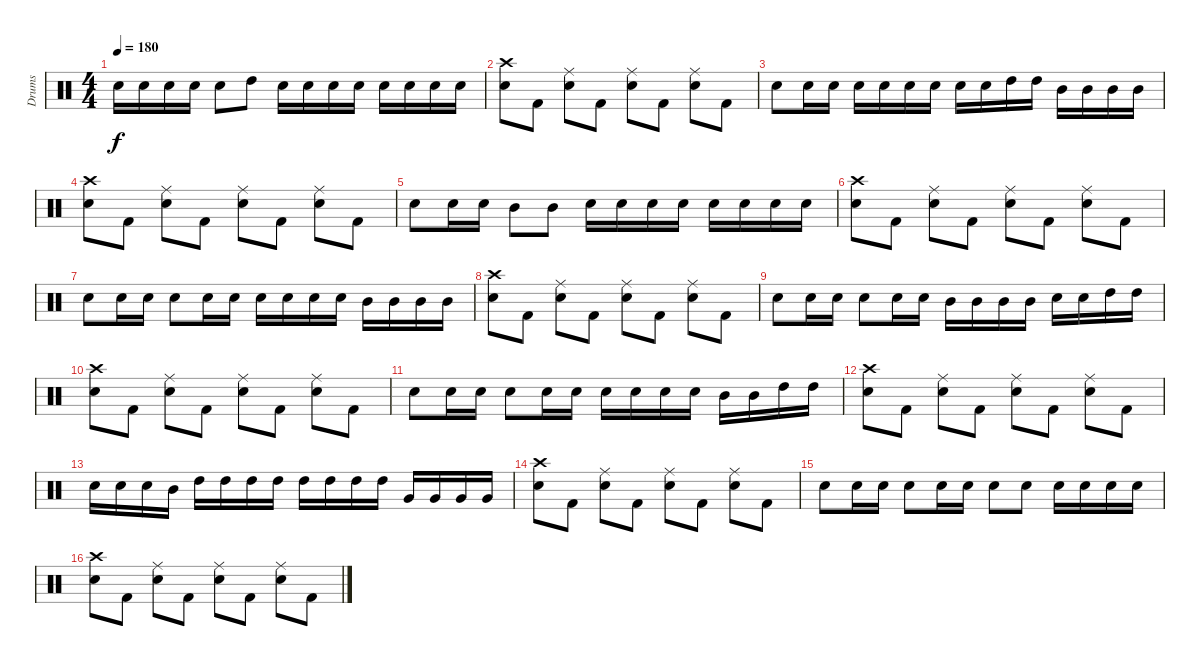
\track ("Drums" "Drums") {instrument percussion}
\staff {score}
\articulation defaults
\ts (4 4)
\tempo 180
\clef neutral
\ks c "Electric Snare (hit)".16{dy f} "Electric Snare (hit)".16 "Electric Snare (hit)".16 "Electric Snare (hit)".16 "Electric Snare (hit)".8 "High Tom (hit)".8 "Electric Snare (hit)".16 "Electric Snare (hit)".16 "Electric Snare (hit)".16 "Electric Snare (hit)".16 "Electric Snare (hit)".16 "Electric Snare (hit)".16 "Electric Snare (hit)".16 "Electric Snare (hit)".16
|
("Crash high (hit)" "Electric Snare (hit)").8 "Kick (hit) 2".8 ("Ride (middle)" "Electric Snare (hit)").8 "Kick (hit) 2".8 ("Ride (middle)" "Electric Snare (hit)").8 "Kick (hit) 2".8 ("Ride (middle)" "Electric Snare (hit)").8 "Kick (hit) 2".8 |
"Electric Snare (hit)".8 "Electric Snare (hit)".16 "Electric Snare (hit)".16 "Electric Snare (hit)".16 "Electric Snare (hit)".16 "Electric Snare (hit)".16 "Electric Snare (hit)".16 "Electric Snare (hit)".16 "Electric Snare (hit)".16 "High Tom (hit)".16 "High Tom (hit)".16 "Mid Tom (hit)".16 "Mid Tom (hit)".16 "Mid Tom (hit)".16 "Mid Tom (hit)".16 |
("Crash high (hit)" "Electric Snare (hit)").8 "Kick (hit) 2".8 ("Ride (middle)" "Electric Snare (hit)").8 "Kick (hit) 2".8 ("Ride (middle)" "Electric Snare (hit)").8 "Kick (hit) 2".8 ("Ride (middle)" "Electric Snare (hit)").8 "Kick (hit) 2".8 |
"Electric Snare (hit)".8 "Electric Snare (hit)".16 "Electric Snare (hit)".16 "Mid Tom (hit)".8 "Mid Tom (hit)".8 "Electric Snare (hit)".16 "Electric Snare (hit)".16 "Electric Snare (hit)".16 "Electric Snare (hit)".16 "Electric Snare (hit)".16 "Electric Snare (hit)".16 "Electric Snare (hit)".16 "Electric Snare (hit)".16 |
("Crash high (hit)" "Electric Snare (hit)").8 "Kick (hit) 2".8 ("Ride (middle)" "Electric Snare (hit)").8 "Kick (hit) 2".8 ("Ride (middle)" "Electric Snare (hit)").8 "Kick (hit) 2".8 ("Ride (middle)" "Electric Snare (hit)").8 "Kick (hit) 2".8 |
"Electric Snare (hit)".8 "Electric Snare (hit)".16 "Electric Snare (hit)".16 "Electric Snare (hit)".8 "Electric Snare (hit)".16 "Electric Snare (hit)".16 "Electric Snare (hit)".16 "Electric Snare (hit)".16 "Electric Snare (hit)".16 "Electric Snare (hit)".16 "Mid Tom (hit)".16 "Mid Tom (hit)".16 "Mid Tom (hit)".16 "Mid Tom (hit)".16 |
("Crash high (hit)" "Electric Snare (hit)").8 "Kick (hit) 2".8 ("Ride (middle)" "Electric Snare (hit)").8 "Kick (hit) 2".8 ("Ride (middle)" "Electric Snare (hit)").8 "Kick (hit) 2".8 ("Ride (middle)" "Electric Snare (hit)").8 "Kick (hit) 2".8 |
"Electric Snare (hit)".8 "Electric Snare (hit)".16 "Electric Snare (hit)".16 "Electric Snare (hit)".8 "Electric Snare (hit)".16 "Electric Snare (hit)".16 "Mid Tom (hit)".16 "Mid Tom (hit)".16 "Mid Tom (hit)".16 "Mid Tom (hit)".16 "Electric Snare (hit)".16 "Electric Snare (hit)".16 "High Tom (hit)".16 "High Tom (hit)".16 |
("Crash high (hit)" "Electric Snare (hit)").8 "Kick (hit) 2".8 ("Ride (middle)" "Electric Snare (hit)").8 "Kick (hit) 2".8 ("Ride (middle)" "Electric Snare (hit)").8 "Kick (hit) 2".8 ("Ride (middle)" "Electric Snare (hit)").8 "Kick (hit) 2".8 |
"Electric Snare (hit)".8 "Electric Snare (hit)".16 "Electric Snare (hit)".16 "Electric Snare (hit)".8 "Electric Snare (hit)".16 "Electric Snare (hit)".16 "Electric Snare (hit)".16 "Electric Snare (hit)".16 "Electric Snare (hit)".16 "Electric Snare (hit)".16 "Mid Tom (hit)".16 "Mid Tom (hit)".16 "High Tom (hit)".16 "High Tom (hit)".16 |
("Crash high (hit)" "Electric Snare (hit)").8 "Kick (hit) 2".8 ("Ride (middle)" "Electric Snare (hit)").8 "Kick (hit) 2".8 ("Ride (middle)" "Electric Snare (hit)").8 "Kick (hit) 2".8 ("Ride (middle)" "Electric Snare (hit)").8 "Kick (hit) 2".8 |
"Electric Snare (hit)".16 "Electric Snare (hit)".16 "Electric Snare (hit)".16 "Mid Tom (hit)".16 "High Tom (hit)".16 "High Tom (hit)".16 "High Tom (hit)".16 "High Tom (hit)".16 "High Tom (hit)".16 "High Tom (hit)".16 "High Tom (hit)".16 "High Tom (hit)".16 "Very Low Tom (hit)".16 "Very Low Tom (hit)".16 "Very Low Tom (hit)".16 "Very Low Tom (hit)".16 |
("Crash high (hit)" "Electric Snare (hit)").8 "Kick (hit) 2".8 ("Ride (middle)" "Electric Snare (hit)").8 "Kick (hit) 2".8 ("Ride (middle)" "Electric Snare (hit)").8 "Kick (hit) 2".8 ("Ride (middle)" "Electric Snare (hit)").8 "Kick (hit) 2".8 |
"Electric Snare (hit)".8 "Electric Snare (hit)".16 "Electric Snare (hit)".16 "Electric Snare (hit)".8 "Electric Snare (hit)".16 "Electric Snare (hit)".16 "Electric Snare (hit)".8 "Electric Snare (hit)".8 "Electric Snare (hit)".16 "Electric Snare (hit)".16 "Electric Snare (hit)".16 "Electric Snare (hit)".16 |
("Crash high (hit)" "Electric Snare (hit)").8 "Kick (hit) 2".8 ("Ride (middle)" "Electric Snare (hit)").8 "Kick (hit) 2".8 ("Ride (middle)" "Electric Snare (hit)").8 "Kick (hit) 2".8 ("Ride (middle)" "Electric Snare (hit)").8 "Kick (hit) 2".8
